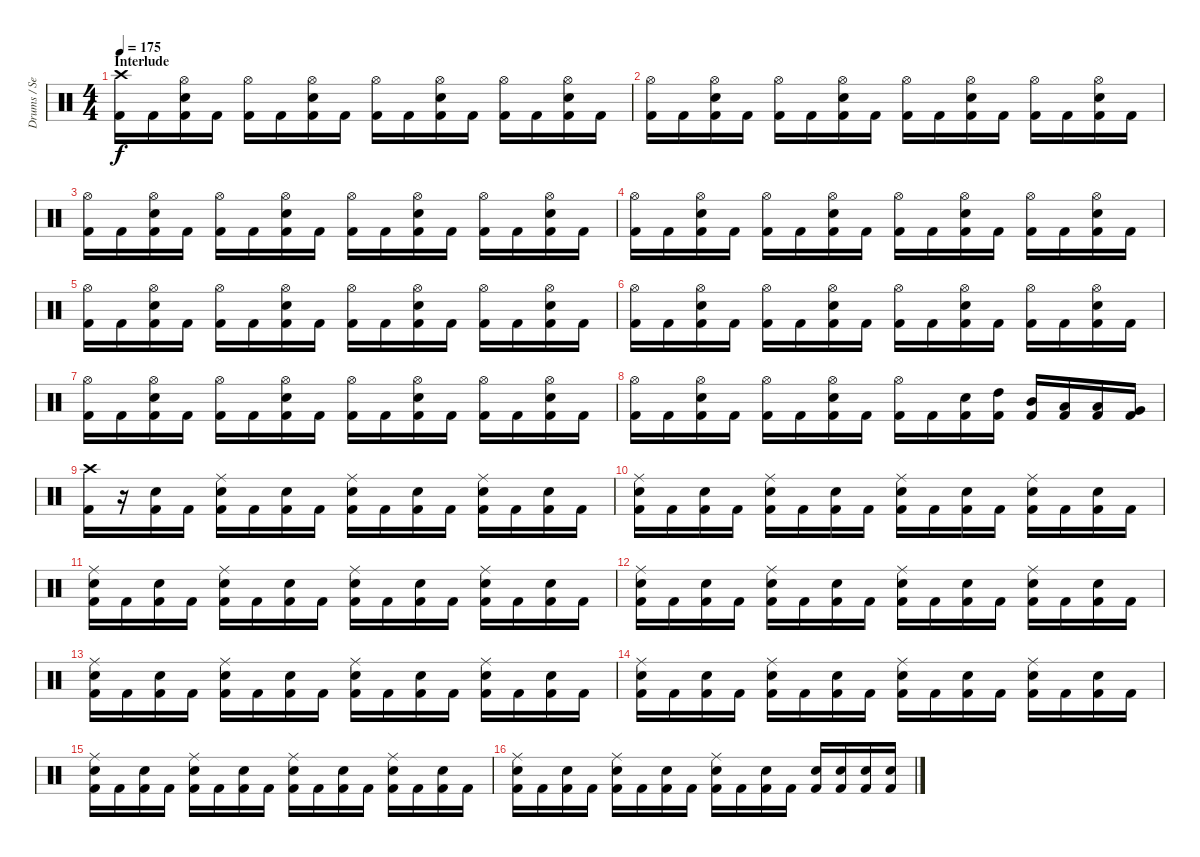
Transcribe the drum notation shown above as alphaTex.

\track ("Drums / Sean" "Drums / Se") {instrument percussion}
\staff {score}
\articulation defaults
\ts (4 4)
\section ("" "Interlude")
\tempo 175
\clef neutral
\ks c
("Crash high (hit)" "Kick (hit) 2").16{dy f} "Kick (hit) 2".16 ("Hi-Hat (open)" "Electric Snare (hit)" "Kick (hit) 2").16 "Kick (hit) 2".16 ("Hi-Hat (open)" "Kick (hit) 2").16 "Kick (hit) 2".16 ("Hi-Hat (open)" "Electric Snare (hit)" "Kick (hit) 2").16 "Kick (hit) 2".16 ("Hi-Hat (open)" "Kick (hit) 2").16 "Kick (hit) 2".16 ("Hi-Hat (open)" "Electric Snare (hit)" "Kick (hit) 2").16 "Kick (hit) 2".16 ("Hi-Hat (open)" "Kick (hit) 2").16 "Kick (hit) 2".16 ("Hi-Hat (open)" "Electric Snare (hit)" "Kick (hit) 2").16 "Kick (hit) 2".16 |
("Hi-Hat (open)" "Kick (hit) 2").16 "Kick (hit) 2".16 ("Hi-Hat (open)" "Electric Snare (hit)" "Kick (hit) 2").16 "Kick (hit) 2".16 ("Hi-Hat (open)" "Kick (hit) 2").16 "Kick (hit) 2".16 ("Hi-Hat (open)" "Electric Snare (hit)" "Kick (hit) 2").16 "Kick (hit) 2".16 ("Hi-Hat (open)" "Kick (hit) 2").16 "Kick (hit) 2".16 ("Hi-Hat (open)" "Electric Snare (hit)" "Kick (hit) 2").16 "Kick (hit) 2".16 ("Hi-Hat (open)" "Kick (hit) 2").16 "Kick (hit) 2".16 ("Hi-Hat (open)" "Electric Snare (hit)" "Kick (hit) 2").16 "Kick (hit) 2".16 |
("Hi-Hat (open)" "Kick (hit) 2").16 "Kick (hit) 2".16 ("Hi-Hat (open)" "Electric Snare (hit)" "Kick (hit) 2").16 "Kick (hit) 2".16 ("Hi-Hat (open)" "Kick (hit) 2").16 "Kick (hit) 2".16 ("Hi-Hat (open)" "Electric Snare (hit)" "Kick (hit) 2").16 "Kick (hit) 2".16 ("Hi-Hat (open)" "Kick (hit) 2").16 "Kick (hit) 2".16 ("Hi-Hat (open)" "Electric Snare (hit)" "Kick (hit) 2").16 "Kick (hit) 2".16 ("Hi-Hat (open)" "Kick (hit) 2").16 "Kick (hit) 2".16 ("Hi-Hat (open)" "Electric Snare (hit)" "Kick (hit) 2").16 "Kick (hit) 2".16 |
("Hi-Hat (open)" "Kick (hit) 2").16 "Kick (hit) 2".16 ("Hi-Hat (open)" "Electric Snare (hit)" "Kick (hit) 2").16 "Kick (hit) 2".16 ("Hi-Hat (open)" "Kick (hit) 2").16 "Kick (hit) 2".16 ("Hi-Hat (open)" "Electric Snare (hit)" "Kick (hit) 2").16 "Kick (hit) 2".16 ("Hi-Hat (open)" "Kick (hit) 2").16 "Kick (hit) 2".16 ("Hi-Hat (open)" "Electric Snare (hit)" "Kick (hit) 2").16 "Kick (hit) 2".16 ("Hi-Hat (open)" "Kick (hit) 2").16 "Kick (hit) 2".16 ("Hi-Hat (open)" "Electric Snare (hit)" "Kick (hit) 2").16 "Kick (hit) 2".16 |
("Hi-Hat (open)" "Kick (hit) 2").16 "Kick (hit) 2".16 ("Hi-Hat (open)" "Electric Snare (hit)" "Kick (hit) 2").16 "Kick (hit) 2".16 ("Hi-Hat (open)" "Kick (hit) 2").16 "Kick (hit) 2".16 ("Hi-Hat (open)" "Electric Snare (hit)" "Kick (hit) 2").16 "Kick (hit) 2".16 ("Hi-Hat (open)" "Kick (hit) 2").16 "Kick (hit) 2".16 ("Hi-Hat (open)" "Electric Snare (hit)" "Kick (hit) 2").16 "Kick (hit) 2".16 ("Hi-Hat (open)" "Kick (hit) 2").16 "Kick (hit) 2".16 ("Hi-Hat (open)" "Electric Snare (hit)" "Kick (hit) 2").16 "Kick (hit) 2".16 |
("Hi-Hat (open)" "Kick (hit) 2").16 "Kick (hit) 2".16 ("Hi-Hat (open)" "Electric Snare (hit)" "Kick (hit) 2").16 "Kick (hit) 2".16 ("Hi-Hat (open)" "Kick (hit) 2").16 "Kick (hit) 2".16 ("Hi-Hat (open)" "Electric Snare (hit)" "Kick (hit) 2").16 "Kick (hit) 2".16 ("Hi-Hat (open)" "Kick (hit) 2").16 "Kick (hit) 2".16 ("Hi-Hat (open)" "Electric Snare (hit)" "Kick (hit) 2").16 "Kick (hit) 2".16 ("Hi-Hat (open)" "Kick (hit) 2").16 "Kick (hit) 2".16 ("Hi-Hat (open)" "Electric Snare (hit)" "Kick (hit) 2").16 "Kick (hit) 2".16 |
("Hi-Hat (open)" "Kick (hit) 2").16 "Kick (hit) 2".16 ("Hi-Hat (open)" "Electric Snare (hit)" "Kick (hit) 2").16 "Kick (hit) 2".16 ("Hi-Hat (open)" "Kick (hit) 2").16 "Kick (hit) 2".16 ("Hi-Hat (open)" "Electric Snare (hit)" "Kick (hit) 2").16 "Kick (hit) 2".16 ("Hi-Hat (open)" "Kick (hit) 2").16 "Kick (hit) 2".16 ("Hi-Hat (open)" "Electric Snare (hit)" "Kick (hit) 2").16 "Kick (hit) 2".16 ("Hi-Hat (open)" "Kick (hit) 2").16 "Kick (hit) 2".16 ("Hi-Hat (open)" "Electric Snare (hit)" "Kick (hit) 2").16 "Kick (hit) 2".16 |
("Hi-Hat (open)" "Kick (hit) 2").16 "Kick (hit) 2".16 ("Hi-Hat (open)" "Electric Snare (hit)" "Kick (hit) 2").16 "Kick (hit) 2".16 ("Hi-Hat (open)" "Kick (hit) 2").16 "Kick (hit) 2".16 ("Hi-Hat (open)" "Electric Snare (hit)" "Kick (hit) 2").16 "Kick (hit) 2".16 ("Hi-Hat (open)" "Kick (hit) 2").16 "Kick (hit) 2".16 ("Electric Snare (hit)" "Kick (hit) 2").16 ("High Tom (hit)" "Kick (hit) 2").16 ("Mid Tom (hit)" "Kick (hit) 2").16 ("Low Tom (hit)" "Kick (hit) 2").16 ("Low Tom (hit)" "Kick (hit) 2").16 ("Very Low Tom (hit)" "Kick (hit) 2").16 |
("Crash high (hit)" "Kick (hit) 2").16 r.16 ("Electric Snare (hit)" "Kick (hit) 2").16 "Kick (hit) 2".16 ("Ride (middle)" "Electric Snare (hit)" "Kick (hit) 2").16 "Kick (hit) 2".16 ("Electric Snare (hit)" "Kick (hit) 2").16 "Kick (hit) 2".16 ("Ride (middle)" "Electric Snare (hit)" "Kick (hit) 2").16 "Kick (hit) 2".16 ("Electric Snare (hit)" "Kick (hit) 2").16 "Kick (hit) 2".16 ("Ride (middle)" "Electric Snare (hit)" "Kick (hit) 2").16 "Kick (hit) 2".16 ("Electric Snare (hit)" "Kick (hit) 2").16 "Kick (hit) 2".16 |
("Ride (middle)" "Electric Snare (hit)" "Kick (hit) 2").16 "Kick (hit) 2".16 ("Electric Snare (hit)" "Kick (hit) 2").16 "Kick (hit) 2".16 ("Ride (middle)" "Electric Snare (hit)" "Kick (hit) 2").16 "Kick (hit) 2".16 ("Electric Snare (hit)" "Kick (hit) 2").16 "Kick (hit) 2".16 ("Ride (middle)" "Electric Snare (hit)" "Kick (hit) 2").16 "Kick (hit) 2".16 ("Electric Snare (hit)" "Kick (hit) 2").16 "Kick (hit) 2".16 ("Ride (middle)" "Electric Snare (hit)" "Kick (hit) 2").16 "Kick (hit) 2".16 ("Electric Snare (hit)" "Kick (hit) 2").16 "Kick (hit) 2".16 |
("Ride (middle)" "Electric Snare (hit)" "Kick (hit) 2").16 "Kick (hit) 2".16 ("Electric Snare (hit)" "Kick (hit) 2").16 "Kick (hit) 2".16 ("Ride (middle)" "Electric Snare (hit)" "Kick (hit) 2").16 "Kick (hit) 2".16 ("Electric Snare (hit)" "Kick (hit) 2").16 "Kick (hit) 2".16 ("Ride (middle)" "Electric Snare (hit)" "Kick (hit) 2").16 "Kick (hit) 2".16 ("Electric Snare (hit)" "Kick (hit) 2").16 "Kick (hit) 2".16 ("Ride (middle)" "Electric Snare (hit)" "Kick (hit) 2").16 "Kick (hit) 2".16 ("Electric Snare (hit)" "Kick (hit) 2").16 "Kick (hit) 2".16 |
("Ride (middle)" "Electric Snare (hit)" "Kick (hit) 2").16 "Kick (hit) 2".16 ("Electric Snare (hit)" "Kick (hit) 2").16 "Kick (hit) 2".16 ("Ride (middle)" "Electric Snare (hit)" "Kick (hit) 2").16 "Kick (hit) 2".16 ("Electric Snare (hit)" "Kick (hit) 2").16 "Kick (hit) 2".16 ("Ride (middle)" "Electric Snare (hit)" "Kick (hit) 2").16 "Kick (hit) 2".16 ("Electric Snare (hit)" "Kick (hit) 2").16 "Kick (hit) 2".16 ("Ride (middle)" "Electric Snare (hit)" "Kick (hit) 2").16 "Kick (hit) 2".16 ("Electric Snare (hit)" "Kick (hit) 2").16 "Kick (hit) 2".16 |
("Ride (middle)" "Electric Snare (hit)" "Kick (hit) 2").16 "Kick (hit) 2".16 ("Electric Snare (hit)" "Kick (hit) 2").16 "Kick (hit) 2".16 ("Ride (middle)" "Electric Snare (hit)" "Kick (hit) 2").16 "Kick (hit) 2".16 ("Electric Snare (hit)" "Kick (hit) 2").16 "Kick (hit) 2".16 ("Ride (middle)" "Electric Snare (hit)" "Kick (hit) 2").16 "Kick (hit) 2".16 ("Electric Snare (hit)" "Kick (hit) 2").16 "Kick (hit) 2".16 ("Ride (middle)" "Electric Snare (hit)" "Kick (hit) 2").16 "Kick (hit) 2".16 ("Electric Snare (hit)" "Kick (hit) 2").16 "Kick (hit) 2".16 |
("Ride (middle)" "Electric Snare (hit)" "Kick (hit) 2").16 "Kick (hit) 2".16 ("Electric Snare (hit)" "Kick (hit) 2").16 "Kick (hit) 2".16 ("Ride (middle)" "Electric Snare (hit)" "Kick (hit) 2").16 "Kick (hit) 2".16 ("Electric Snare (hit)" "Kick (hit) 2").16 "Kick (hit) 2".16 ("Ride (middle)" "Electric Snare (hit)" "Kick (hit) 2").16 "Kick (hit) 2".16 ("Electric Snare (hit)" "Kick (hit) 2").16 "Kick (hit) 2".16 ("Ride (middle)" "Electric Snare (hit)" "Kick (hit) 2").16 "Kick (hit) 2".16 ("Electric Snare (hit)" "Kick (hit) 2").16 "Kick (hit) 2".16 |
("Ride (middle)" "Electric Snare (hit)" "Kick (hit) 2").16 "Kick (hit) 2".16 ("Electric Snare (hit)" "Kick (hit) 2").16 "Kick (hit) 2".16 ("Ride (middle)" "Electric Snare (hit)" "Kick (hit) 2").16 "Kick (hit) 2".16 ("Electric Snare (hit)" "Kick (hit) 2").16 "Kick (hit) 2".16 ("Ride (middle)" "Electric Snare (hit)" "Kick (hit) 2").16 "Kick (hit) 2".16 ("Electric Snare (hit)" "Kick (hit) 2").16 "Kick (hit) 2".16 ("Ride (middle)" "Electric Snare (hit)" "Kick (hit) 2").16 "Kick (hit) 2".16 ("Electric Snare (hit)" "Kick (hit) 2").16 "Kick (hit) 2".16 |
("Ride (middle)" "Electric Snare (hit)" "Kick (hit) 2").16 "Kick (hit) 2".16 ("Electric Snare (hit)" "Kick (hit) 2").16 "Kick (hit) 2".16 ("Ride (middle)" "Electric Snare (hit)" "Kick (hit) 2").16 "Kick (hit) 2".16 ("Electric Snare (hit)" "Kick (hit) 2").16 "Kick (hit) 2".16 ("Ride (middle)" "Electric Snare (hit)" "Kick (hit) 2").16 "Kick (hit) 2".16 ("Electric Snare (hit)" "Kick (hit) 2").16 "Kick (hit) 2".16 ("Electric Snare (hit)" "Kick (hit) 2").16 ("Electric Snare (hit)" "Kick (hit) 2").16 ("Electric Snare (hit)" "Kick (hit) 2").16 ("Electric Snare (hit)" "Kick (hit) 2").16
